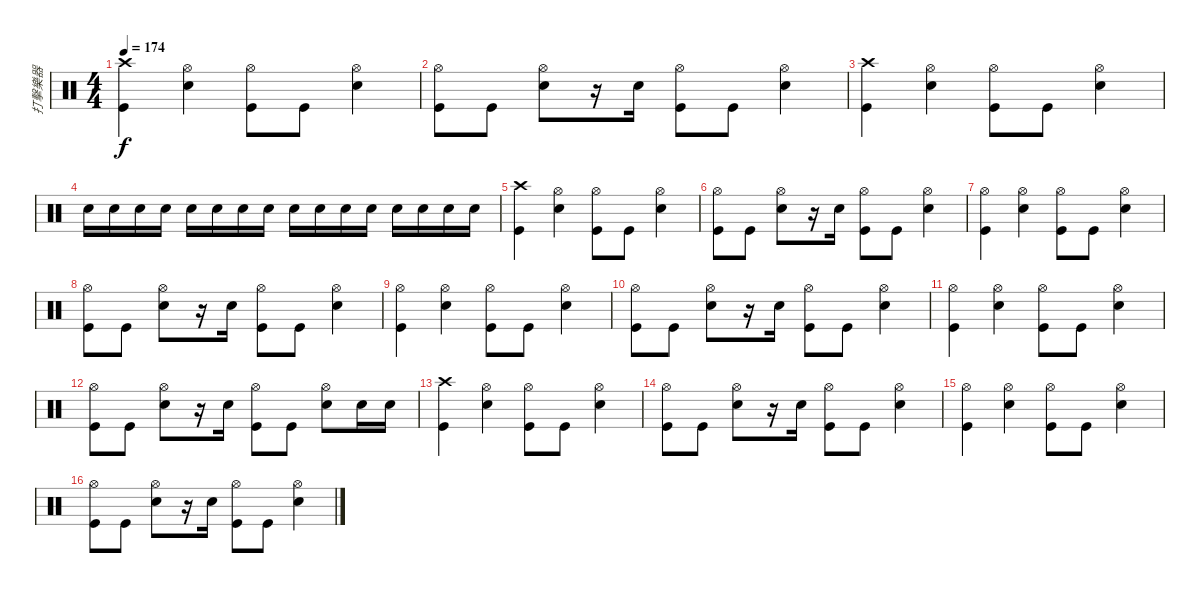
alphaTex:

\track ("打擊樂器" "打擊樂器") {instrument percussion}
\staff {score}
\articulation defaults
\ts (4 4)
\tempo 174
\clef neutral
\ks c
("Crash high (hit)" "Kick (hit)").4{dy f} ("Hi-Hat (open)" "Snare (hit) 2").4 ("Kick (hit)" "Hi-Hat (open)").8 "Kick (hit)".8 ("Hi-Hat (open)" "Snare (hit) 2").4 |
("Hi-Hat (open)" "Kick (hit)").8 "Kick (hit)".8 ("Hi-Hat (open)" "Snare (hit) 2").8 r.16 "Snare (hit) 2".16 ("Hi-Hat (open)" "Kick (hit)").8 "Kick (hit)".8 ("Hi-Hat (open)" "Snare (hit) 2").4 |
("Crash high (hit)" "Kick (hit)").4 ("Hi-Hat (open)" "Snare (hit) 2").4 ("Kick (hit)" "Hi-Hat (open)").8 "Kick (hit)".8 ("Hi-Hat (open)" "Snare (hit) 2").4 |
"Snare (hit) 2".16 "Snare (hit) 2".16 "Snare (hit) 2".16 "Snare (hit) 2".16 "Snare (hit) 2".16 "Snare (hit) 2".16 "Snare (hit) 2".16 "Snare (hit) 2".16 "Snare (hit) 2".16 "Snare (hit) 2".16 "Snare (hit) 2".16 "Snare (hit) 2".16 "Snare (hit) 2".16 "Snare (hit) 2".16 "Snare (hit) 2".16 "Snare (hit) 2".16 |
("Crash high (hit)" "Kick (hit)").4 ("Hi-Hat (open)" "Snare (hit) 2").4 ("Kick (hit)" "Hi-Hat (open)").8 "Kick (hit)".8 ("Hi-Hat (open)" "Snare (hit) 2").4 |
("Hi-Hat (open)" "Kick (hit)").8 "Kick (hit)".8 ("Hi-Hat (open)" "Snare (hit) 2").8 r.16 "Snare (hit) 2".16 ("Hi-Hat (open)" "Kick (hit)").8 "Kick (hit)".8 ("Hi-Hat (open)" "Snare (hit) 2").4 |
("Hi-Hat (open)" "Kick (hit)").4 ("Hi-Hat (open)" "Snare (hit) 2").4 ("Kick (hit)" "Hi-Hat (open)").8 "Kick (hit)".8 ("Hi-Hat (open)" "Snare (hit) 2").4 |
("Hi-Hat (open)" "Kick (hit)").8 "Kick (hit)".8 ("Hi-Hat (open)" "Snare (hit) 2").8 r.16 "Snare (hit) 2".16 ("Hi-Hat (open)" "Kick (hit)").8 "Kick (hit)".8 ("Hi-Hat (open)" "Snare (hit) 2").4 |
("Hi-Hat (open)" "Kick (hit)").4 ("Hi-Hat (open)" "Snare (hit) 2").4 ("Kick (hit)" "Hi-Hat (open)").8 "Kick (hit)".8 ("Hi-Hat (open)" "Snare (hit) 2").4 |
("Hi-Hat (open)" "Kick (hit)").8 "Kick (hit)".8 ("Hi-Hat (open)" "Snare (hit) 2").8 r.16 "Snare (hit) 2".16 ("Hi-Hat (open)" "Kick (hit)").8 "Kick (hit)".8 ("Hi-Hat (open)" "Snare (hit) 2").4 |
("Hi-Hat (open)" "Kick (hit)").4 ("Hi-Hat (open)" "Snare (hit) 2").4 ("Kick (hit)" "Hi-Hat (open)").8 "Kick (hit)".8 ("Hi-Hat (open)" "Snare (hit) 2").4 |
("Hi-Hat (open)" "Kick (hit)").8 "Kick (hit)".8 ("Hi-Hat (open)" "Snare (hit) 2").8 r.16 "Snare (hit) 2".16 ("Hi-Hat (open)" "Kick (hit)").8 "Kick (hit)".8 ("Hi-Hat (open)" "Snare (hit) 2").8 "Snare (hit) 2".16 "Snare (hit) 2".16 |
("Crash high (hit)" "Kick (hit)").4 ("Hi-Hat (open)" "Snare (hit) 2").4 ("Kick (hit)" "Hi-Hat (open)").8 "Kick (hit)".8 ("Hi-Hat (open)" "Snare (hit) 2").4 |
("Hi-Hat (open)" "Kick (hit)").8 "Kick (hit)".8 ("Hi-Hat (open)" "Snare (hit) 2").8 r.16 "Snare (hit) 2".16 ("Hi-Hat (open)" "Kick (hit)").8 "Kick (hit)".8 ("Hi-Hat (open)" "Snare (hit) 2").4 |
("Hi-Hat (open)" "Kick (hit)").4 ("Hi-Hat (open)" "Snare (hit) 2").4 ("Kick (hit)" "Hi-Hat (open)").8 "Kick (hit)".8 ("Hi-Hat (open)" "Snare (hit) 2").4 |
("Hi-Hat (open)" "Kick (hit)").8 "Kick (hit)".8 ("Hi-Hat (open)" "Snare (hit) 2").8 r.16 "Snare (hit) 2".16 ("Hi-Hat (open)" "Kick (hit)").8 "Kick (hit)".8 ("Hi-Hat (open)" "Snare (hit) 2").4
